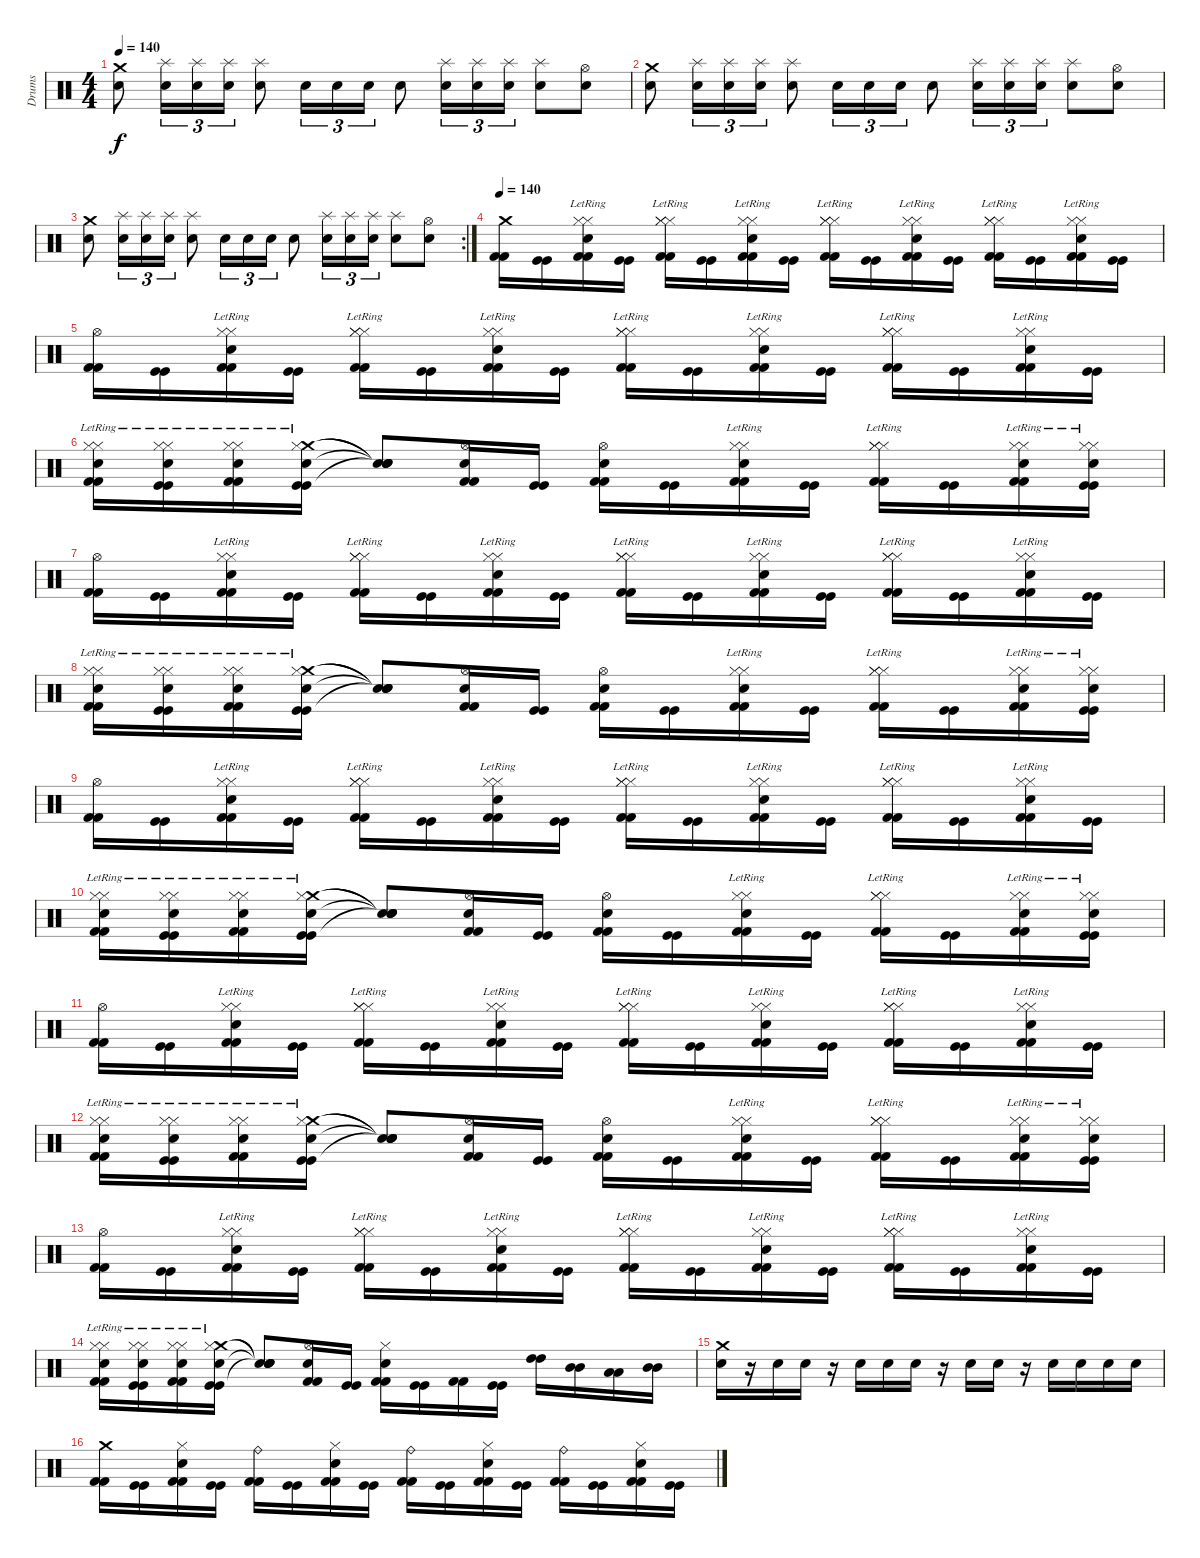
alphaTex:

\track ("Drums" "Drums") {instrument percussion}
\staff {score}
\articulation defaults
\ts (4 4)
\tempo 140
\clef neutral
\ks c
("Crash medium (hit)" "Snare (hit) 2").8{dy f} ("Splash (hit)" "Snare (hit) 2").16{tu (3 2)} ("Splash (hit)" "Snare (hit) 2").16{tu (3 2)} ("Splash (hit)" "Snare (hit) 2").16{tu (3 2)} ("Splash (hit)" "Snare (hit) 2").8 "Snare (hit) 2".16{tu (3 2)} "Snare (hit) 2".16{tu (3 2)} "Snare (hit) 2".16{tu (3 2)} "Snare (hit) 2".8 ("Splash (hit)" "Snare (hit) 2").16{tu (3 2)} ("Splash (hit)" "Snare (hit) 2").16{tu (3 2)} ("Splash (hit)" "Snare (hit) 2").16{tu (3 2)} ("Splash (hit)" "Snare (hit) 2").8 ("Hi-Hat (open)" "Snare (hit) 2").8 |
("Crash medium (hit)" "Snare (hit) 2").8 ("Splash (hit)" "Snare (hit) 2").16{tu (3 2)} ("Splash (hit)" "Snare (hit) 2").16{tu (3 2)} ("Splash (hit)" "Snare (hit) 2").16{tu (3 2)} ("Splash (hit)" "Snare (hit) 2").8 "Snare (hit) 2".16{tu (3 2)} "Snare (hit) 2".16{tu (3 2)} "Snare (hit) 2".16{tu (3 2)} "Snare (hit) 2".8 ("Splash (hit)" "Snare (hit) 2").16{tu (3 2)} ("Splash (hit)" "Snare (hit) 2").16{tu (3 2)} ("Splash (hit)" "Snare (hit) 2").16{tu (3 2)} ("Splash (hit)" "Snare (hit) 2").8 ("Hi-Hat (open)" "Snare (hit) 2").8 |
\rc 2
("Crash medium (hit)" "Snare (hit) 2").8 ("Splash (hit)" "Snare (hit) 2").16{tu (3 2)} ("Splash (hit)" "Snare (hit) 2").16{tu (3 2)} ("Splash (hit)" "Snare (hit) 2").16{tu (3 2)} ("Splash (hit)" "Snare (hit) 2").8 "Snare (hit) 2".16{tu (3 2)} "Snare (hit) 2".16{tu (3 2)} "Snare (hit) 2".16{tu (3 2)} "Snare (hit) 2".8 ("Splash (hit)" "Snare (hit) 2").16{tu (3 2)} ("Splash (hit)" "Snare (hit) 2").16{tu (3 2)} ("Splash (hit)" "Snare (hit) 2").16{tu (3 2)} ("Splash (hit)" "Snare (hit) 2").8 ("Hi-Hat (open)" "Snare (hit) 2").8 |
\tempo 140
("Crash medium (hit)" "Kick (hit) 2" "Kick (hit) 2").16 ("Kick (hit)" "Kick (hit)").16 ("Hi-Hat (closed)"{lr} "Hi-Hat (closed)"{lr} "Snare (hit) 2" "Kick (hit) 2" "Kick (hit) 2").16 ("Kick (hit)" "Kick (hit)").16 ("Hi-Hat (closed)"{lr} "Hi-Hat (closed)"{lr} "Hi-Hat (closed)"{lr} "Kick (hit) 2" "Kick (hit) 2").16 ("Kick (hit)" "Kick (hit)").16 ("Hi-Hat (closed)"{lr} "Hi-Hat (closed)"{lr} "Snare (hit) 2" "Kick (hit) 2" "Kick (hit) 2").16 ("Kick (hit)" "Kick (hit)").16 ("Hi-Hat (closed)"{lr} "Hi-Hat (closed)"{lr} "Hi-Hat (closed)"{lr} "Kick (hit) 2" "Kick (hit) 2").16 ("Kick (hit)" "Kick (hit)").16 ("Hi-Hat (closed)"{lr} "Hi-Hat (closed)"{lr} "Snare (hit) 2" "Kick (hit) 2" "Kick (hit) 2").16 ("Kick (hit)" "Kick (hit)").16 ("Hi-Hat (closed)"{lr} "Hi-Hat (closed)"{lr} "Hi-Hat (closed)"{lr} "Kick (hit) 2" "Kick (hit) 2").16 ("Kick (hit)" "Kick (hit)").16 ("Hi-Hat (closed)"{lr} "Hi-Hat (closed)"{lr} "Snare (hit) 2" "Kick (hit) 2" "Kick (hit) 2").16 ("Kick (hit)" "Kick (hit)").16 |
("Hi-Hat (open)" "Kick (hit) 2" "Kick (hit) 2").16 ("Kick (hit)" "Kick (hit)").16 ("Hi-Hat (closed)"{lr} "Hi-Hat (closed)"{lr} "Snare (hit) 2" "Kick (hit) 2" "Kick (hit) 2").16 ("Kick (hit)" "Kick (hit)").16 ("Hi-Hat (closed)"{lr} "Hi-Hat (closed)"{lr} "Hi-Hat (closed)"{lr} "Kick (hit) 2" "Kick (hit) 2").16 ("Kick (hit)" "Kick (hit)").16 ("Hi-Hat (closed)"{lr} "Hi-Hat (closed)"{lr} "Snare (hit) 2" "Kick (hit) 2" "Kick (hit) 2").16 ("Kick (hit)" "Kick (hit)").16 ("Hi-Hat (closed)"{lr} "Hi-Hat (closed)"{lr} "Hi-Hat (closed)"{lr} "Kick (hit) 2" "Kick (hit) 2").16 ("Kick (hit)" "Kick (hit)").16 ("Hi-Hat (closed)"{lr} "Hi-Hat (closed)"{lr} "Snare (hit) 2" "Kick (hit) 2" "Kick (hit) 2").16 ("Kick (hit)" "Kick (hit)").16 ("Hi-Hat (closed)"{lr} "Hi-Hat (closed)"{lr} "Hi-Hat (closed)"{lr} "Kick (hit) 2" "Kick (hit) 2").16 ("Kick (hit)" "Kick (hit)").16 ("Hi-Hat (closed)"{lr} "Hi-Hat (closed)"{lr} "Snare (hit) 2" "Kick (hit) 2" "Kick (hit) 2").16 ("Kick (hit)" "Kick (hit)").16 |
("Hi-Hat (closed)"{lr} "Hi-Hat (closed)"{lr} "Snare (hit) 2" "Kick (hit) 2" "Kick (hit) 2").16 ("Hi-Hat (closed)"{lr} "Hi-Hat (closed)"{lr} "Snare (hit) 2" "Kick (hit)" "Kick (hit)").16 ("Hi-Hat (closed)"{lr} "Hi-Hat (closed)"{lr} "Snare (hit) 2" "Kick (hit) 2" "Kick (hit) 2").16 ("Crash medium (hit)"{lr} "Hi-Hat (closed)"{lr} "Snare (hit) 2" "Kick (hit)" "Kick (hit)").16 ("Snare (hit)"{t} "Snare (hit)"{t} "Snare (hit)"{t} "Snare (hit)"{t}).8 ("Hi-Hat (open)" "Snare (hit) 2" "Kick (hit) 2" "Kick (hit) 2").16 ("Kick (hit)" "Kick (hit)").16 ("Hi-Hat (open)" "Snare (hit) 2" "Kick (hit) 2" "Kick (hit) 2").16 ("Kick (hit)" "Kick (hit)").16 ("Hi-Hat (closed)"{lr} "Hi-Hat (closed)"{lr} "Snare (hit) 2"{lr} "Kick (hit) 2" "Kick (hit) 2").16 ("Kick (hit)" "Kick (hit)").16 ("Hi-Hat (closed)"{lr} "Hi-Hat (closed)"{lr} "Hi-Hat (closed)"{lr} "Kick (hit) 2" "Kick (hit) 2").16 ("Kick (hit)" "Kick (hit)").16 ("Hi-Hat (closed)"{lr} "Hi-Hat (closed)"{lr} "Snare (hit) 2" "Kick (hit) 2" "Kick (hit) 2").16 ("Hi-Hat (closed)"{lr} "Hi-Hat (closed)"{lr} "Snare (hit) 2" "Kick (hit)" "Kick (hit)").16 |
("Hi-Hat (open)" "Kick (hit) 2" "Kick (hit) 2").16 ("Kick (hit)" "Kick (hit)").16 ("Hi-Hat (closed)"{lr} "Hi-Hat (closed)"{lr} "Snare (hit) 2" "Kick (hit) 2" "Kick (hit) 2").16 ("Kick (hit)" "Kick (hit)").16 ("Hi-Hat (closed)"{lr} "Hi-Hat (closed)"{lr} "Hi-Hat (closed)"{lr} "Kick (hit) 2" "Kick (hit) 2").16 ("Kick (hit)" "Kick (hit)").16 ("Hi-Hat (closed)"{lr} "Hi-Hat (closed)"{lr} "Snare (hit) 2" "Kick (hit) 2" "Kick (hit) 2").16 ("Kick (hit)" "Kick (hit)").16 ("Hi-Hat (closed)"{lr} "Hi-Hat (closed)"{lr} "Hi-Hat (closed)"{lr} "Kick (hit) 2" "Kick (hit) 2").16 ("Kick (hit)" "Kick (hit)").16 ("Hi-Hat (closed)"{lr} "Hi-Hat (closed)"{lr} "Snare (hit) 2" "Kick (hit) 2" "Kick (hit) 2").16 ("Kick (hit)" "Kick (hit)").16 ("Hi-Hat (closed)"{lr} "Hi-Hat (closed)"{lr} "Hi-Hat (closed)"{lr} "Kick (hit) 2" "Kick (hit) 2").16 ("Kick (hit)" "Kick (hit)").16 ("Hi-Hat (closed)"{lr} "Hi-Hat (closed)"{lr} "Snare (hit) 2" "Kick (hit) 2" "Kick (hit) 2").16 ("Kick (hit)" "Kick (hit)").16 |
("Hi-Hat (closed)"{lr} "Hi-Hat (closed)"{lr} "Snare (hit) 2" "Kick (hit) 2" "Kick (hit) 2").16 ("Hi-Hat (closed)"{lr} "Hi-Hat (closed)"{lr} "Snare (hit) 2" "Kick (hit)" "Kick (hit)").16 ("Hi-Hat (closed)"{lr} "Hi-Hat (closed)"{lr} "Snare (hit) 2" "Kick (hit) 2" "Kick (hit) 2").16 ("Crash medium (hit)"{lr} "Hi-Hat (closed)"{lr} "Snare (hit) 2" "Kick (hit)" "Kick (hit)").16 ("Snare (hit)"{t} "Snare (hit)"{t} "Snare (hit)"{t} "Snare (hit)"{t}).8 ("Hi-Hat (open)" "Snare (hit) 2" "Kick (hit) 2" "Kick (hit) 2").16 ("Kick (hit)" "Kick (hit)").16 ("Hi-Hat (open)" "Snare (hit) 2" "Kick (hit) 2" "Kick (hit) 2").16 ("Kick (hit)" "Kick (hit)").16 ("Hi-Hat (closed)"{lr} "Hi-Hat (closed)"{lr} "Snare (hit) 2"{lr} "Kick (hit) 2" "Kick (hit) 2").16 ("Kick (hit)" "Kick (hit)").16 ("Hi-Hat (closed)"{lr} "Hi-Hat (closed)"{lr} "Hi-Hat (closed)"{lr} "Kick (hit) 2" "Kick (hit) 2").16 ("Kick (hit)" "Kick (hit)").16 ("Hi-Hat (closed)"{lr} "Hi-Hat (closed)"{lr} "Snare (hit) 2" "Kick (hit) 2" "Kick (hit) 2").16 ("Hi-Hat (closed)"{lr} "Hi-Hat (closed)"{lr} "Snare (hit) 2" "Kick (hit)" "Kick (hit)").16 |
("Hi-Hat (open)" "Kick (hit) 2" "Kick (hit) 2").16 ("Kick (hit)" "Kick (hit)").16 ("Hi-Hat (closed)"{lr} "Hi-Hat (closed)"{lr} "Snare (hit) 2" "Kick (hit) 2" "Kick (hit) 2").16 ("Kick (hit)" "Kick (hit)").16 ("Hi-Hat (closed)"{lr} "Hi-Hat (closed)"{lr} "Hi-Hat (closed)"{lr} "Kick (hit) 2" "Kick (hit) 2").16 ("Kick (hit)" "Kick (hit)").16 ("Hi-Hat (closed)"{lr} "Hi-Hat (closed)"{lr} "Snare (hit) 2" "Kick (hit) 2" "Kick (hit) 2").16 ("Kick (hit)" "Kick (hit)").16 ("Hi-Hat (closed)"{lr} "Hi-Hat (closed)"{lr} "Hi-Hat (closed)"{lr} "Kick (hit) 2" "Kick (hit) 2").16 ("Kick (hit)" "Kick (hit)").16 ("Hi-Hat (closed)"{lr} "Hi-Hat (closed)"{lr} "Snare (hit) 2" "Kick (hit) 2" "Kick (hit) 2").16 ("Kick (hit)" "Kick (hit)").16 ("Hi-Hat (closed)"{lr} "Hi-Hat (closed)"{lr} "Hi-Hat (closed)"{lr} "Kick (hit) 2" "Kick (hit) 2").16 ("Kick (hit)" "Kick (hit)").16 ("Hi-Hat (closed)"{lr} "Hi-Hat (closed)"{lr} "Snare (hit) 2" "Kick (hit) 2" "Kick (hit) 2").16 ("Kick (hit)" "Kick (hit)").16 |
("Hi-Hat (closed)"{lr} "Hi-Hat (closed)"{lr} "Snare (hit) 2" "Kick (hit) 2" "Kick (hit) 2").16 ("Hi-Hat (closed)"{lr} "Hi-Hat (closed)"{lr} "Snare (hit) 2" "Kick (hit)" "Kick (hit)").16 ("Hi-Hat (closed)"{lr} "Hi-Hat (closed)"{lr} "Snare (hit) 2" "Kick (hit) 2" "Kick (hit) 2").16 ("Crash medium (hit)"{lr} "Hi-Hat (closed)"{lr} "Snare (hit) 2" "Kick (hit)" "Kick (hit)").16 ("Snare (hit)"{t} "Snare (hit)"{t} "Snare (hit)"{t} "Snare (hit)"{t}).8 ("Hi-Hat (open)" "Snare (hit) 2" "Kick (hit) 2" "Kick (hit) 2").16 ("Kick (hit)" "Kick (hit)").16 ("Hi-Hat (open)" "Snare (hit) 2" "Kick (hit) 2" "Kick (hit) 2").16 ("Kick (hit)" "Kick (hit)").16 ("Hi-Hat (closed)"{lr} "Hi-Hat (closed)"{lr} "Snare (hit) 2"{lr} "Kick (hit) 2" "Kick (hit) 2").16 ("Kick (hit)" "Kick (hit)").16 ("Hi-Hat (closed)"{lr} "Hi-Hat (closed)"{lr} "Hi-Hat (closed)"{lr} "Kick (hit) 2" "Kick (hit) 2").16 ("Kick (hit)" "Kick (hit)").16 ("Hi-Hat (closed)"{lr} "Hi-Hat (closed)"{lr} "Snare (hit) 2" "Kick (hit) 2" "Kick (hit) 2").16 ("Hi-Hat (closed)"{lr} "Hi-Hat (closed)"{lr} "Snare (hit) 2" "Kick (hit)" "Kick (hit)").16 |
("Hi-Hat (open)" "Kick (hit) 2" "Kick (hit) 2").16 ("Kick (hit)" "Kick (hit)").16 ("Hi-Hat (closed)"{lr} "Hi-Hat (closed)"{lr} "Snare (hit) 2" "Kick (hit) 2" "Kick (hit) 2").16 ("Kick (hit)" "Kick (hit)").16 ("Hi-Hat (closed)"{lr} "Hi-Hat (closed)"{lr} "Hi-Hat (closed)"{lr} "Kick (hit) 2" "Kick (hit) 2").16 ("Kick (hit)" "Kick (hit)").16 ("Hi-Hat (closed)"{lr} "Hi-Hat (closed)"{lr} "Snare (hit) 2" "Kick (hit) 2" "Kick (hit) 2").16 ("Kick (hit)" "Kick (hit)").16 ("Hi-Hat (closed)"{lr} "Hi-Hat (closed)"{lr} "Hi-Hat (closed)"{lr} "Kick (hit) 2" "Kick (hit) 2").16 ("Kick (hit)" "Kick (hit)").16 ("Hi-Hat (closed)"{lr} "Hi-Hat (closed)"{lr} "Snare (hit) 2" "Kick (hit) 2" "Kick (hit) 2").16 ("Kick (hit)" "Kick (hit)").16 ("Hi-Hat (closed)"{lr} "Hi-Hat (closed)"{lr} "Hi-Hat (closed)"{lr} "Kick (hit) 2" "Kick (hit) 2").16 ("Kick (hit)" "Kick (hit)").16 ("Hi-Hat (closed)"{lr} "Hi-Hat (closed)"{lr} "Snare (hit) 2" "Kick (hit) 2" "Kick (hit) 2").16 ("Kick (hit)" "Kick (hit)").16 |
("Hi-Hat (closed)"{lr} "Hi-Hat (closed)"{lr} "Snare (hit) 2" "Kick (hit) 2" "Kick (hit) 2").16 ("Hi-Hat (closed)"{lr} "Hi-Hat (closed)"{lr} "Snare (hit) 2" "Kick (hit)" "Kick (hit)").16 ("Hi-Hat (closed)"{lr} "Hi-Hat (closed)"{lr} "Snare (hit) 2" "Kick (hit) 2" "Kick (hit) 2").16 ("Crash medium (hit)"{lr} "Hi-Hat (closed)"{lr} "Snare (hit) 2" "Kick (hit)" "Kick (hit)").16 ("Snare (hit)"{t} "Snare (hit)"{t} "Snare (hit)"{t} "Snare (hit)"{t}).8 ("Hi-Hat (open)" "Snare (hit) 2" "Kick (hit) 2" "Kick (hit) 2").16 ("Kick (hit)" "Kick (hit)").16 ("Hi-Hat (open)" "Snare (hit) 2" "Kick (hit) 2" "Kick (hit) 2").16 ("Kick (hit)" "Kick (hit)").16 ("Hi-Hat (closed)"{lr} "Hi-Hat (closed)"{lr} "Snare (hit) 2"{lr} "Kick (hit) 2" "Kick (hit) 2").16 ("Kick (hit)" "Kick (hit)").16 ("Hi-Hat (closed)"{lr} "Hi-Hat (closed)"{lr} "Hi-Hat (closed)"{lr} "Kick (hit) 2" "Kick (hit) 2").16 ("Kick (hit)" "Kick (hit)").16 ("Hi-Hat (closed)"{lr} "Hi-Hat (closed)"{lr} "Snare (hit) 2" "Kick (hit) 2" "Kick (hit) 2").16 ("Hi-Hat (closed)"{lr} "Hi-Hat (closed)"{lr} "Snare (hit) 2" "Kick (hit)" "Kick (hit)").16 |
("Hi-Hat (open)" "Kick (hit) 2" "Kick (hit) 2").16 ("Kick (hit)" "Kick (hit)").16 ("Hi-Hat (closed)"{lr} "Hi-Hat (closed)"{lr} "Snare (hit) 2" "Kick (hit) 2" "Kick (hit) 2").16 ("Kick (hit)" "Kick (hit)").16 ("Hi-Hat (closed)"{lr} "Hi-Hat (closed)"{lr} "Hi-Hat (closed)"{lr} "Kick (hit) 2" "Kick (hit) 2").16 ("Kick (hit)" "Kick (hit)").16 ("Hi-Hat (closed)"{lr} "Hi-Hat (closed)"{lr} "Snare (hit) 2" "Kick (hit) 2" "Kick (hit) 2").16 ("Kick (hit)" "Kick (hit)").16 ("Hi-Hat (closed)"{lr} "Hi-Hat (closed)"{lr} "Hi-Hat (closed)"{lr} "Kick (hit) 2" "Kick (hit) 2").16 ("Kick (hit)" "Kick (hit)").16 ("Hi-Hat (closed)"{lr} "Hi-Hat (closed)"{lr} "Snare (hit) 2" "Kick (hit) 2" "Kick (hit) 2").16 ("Kick (hit)" "Kick (hit)").16 ("Hi-Hat (closed)"{lr} "Hi-Hat (closed)"{lr} "Hi-Hat (closed)"{lr} "Kick (hit) 2" "Kick (hit) 2").16 ("Kick (hit)" "Kick (hit)").16 ("Hi-Hat (closed)"{lr} "Hi-Hat (closed)"{lr} "Snare (hit) 2" "Kick (hit) 2" "Kick (hit) 2").16 ("Kick (hit)" "Kick (hit)").16 |
("Hi-Hat (closed)"{lr} "Hi-Hat (closed)"{lr} "Snare (hit) 2" "Kick (hit) 2" "Kick (hit) 2").16 ("Hi-Hat (closed)"{lr} "Hi-Hat (closed)"{lr} "Snare (hit) 2" "Kick (hit)" "Kick (hit)").16 ("Hi-Hat (closed)"{lr} "Hi-Hat (closed)"{lr} "Snare (hit) 2" "Kick (hit) 2" "Kick (hit) 2").16 ("Crash medium (hit)"{lr} "Hi-Hat (closed)"{lr} "Snare (hit) 2" "Kick (hit)" "Kick (hit)").16 ("Snare (hit)"{t} "Snare (hit)"{t} "Snare (hit)"{t} "Snare (hit)"{t}).8 ("Hi-Hat (open)" "Snare (hit) 2" "Kick (hit) 2" "Kick (hit) 2").16 ("Kick (hit)" "Kick (hit)").16 ("Hi-Hat (closed)" "Snare (hit) 2" "Kick (hit) 2" "Kick (hit) 2").16 ("Kick (hit)" "Kick (hit)").16 ("Kick (hit) 2" "Kick (hit) 2").16 ("Kick (hit)" "Kick (hit)").16 ("High Tom (hit)" "High Tom (hit)").16 ("Mid Tom (hit)" "Mid Tom (hit)").16 ("Low Tom (hit)" "Low Tom (hit)").16 ("Mid Tom (hit)" "Mid Tom (hit)").16 |
("Crash medium (hit)" "Snare (hit) 2").16 r.16 "Snare (hit) 2".16 "Snare (hit) 2".16 r.16 "Snare (hit) 2".16 "Snare (hit) 2".16 "Snare (hit) 2".16 r.16 "Snare (hit) 2".16 "Snare (hit) 2".16 r.16 "Snare (hit) 2".16 "Snare (hit) 2".16 "Snare (hit) 2".16 "Snare (hit) 2".16 |
("Crash medium (hit)" "Kick (hit) 2" "Kick (hit) 2").16 ("Kick (hit)" "Kick (hit)").16 ("Hi-Hat (closed)" "Snare (hit) 2" "Kick (hit) 2" "Kick (hit) 2").16 ("Kick (hit)" "Kick (hit)").16 ("Ride (bell)" "Kick (hit) 2" "Kick (hit) 2").16 ("Kick (hit)" "Kick (hit)").16 ("Hi-Hat (closed)" "Snare (hit) 2" "Kick (hit) 2" "Kick (hit) 2").16 ("Kick (hit)" "Kick (hit)").16 ("Ride (bell)" "Kick (hit) 2" "Kick (hit) 2").16 ("Kick (hit)" "Kick (hit)").16 ("Hi-Hat (closed)" "Snare (hit) 2" "Kick (hit) 2" "Kick (hit) 2").16 ("Kick (hit)" "Kick (hit)").16 ("Ride (bell)" "Kick (hit) 2" "Kick (hit) 2").16 ("Kick (hit)" "Kick (hit)").16 ("Hi-Hat (closed)" "Snare (hit) 2" "Kick (hit) 2" "Kick (hit) 2").16 ("Kick (hit)" "Kick (hit)").16
